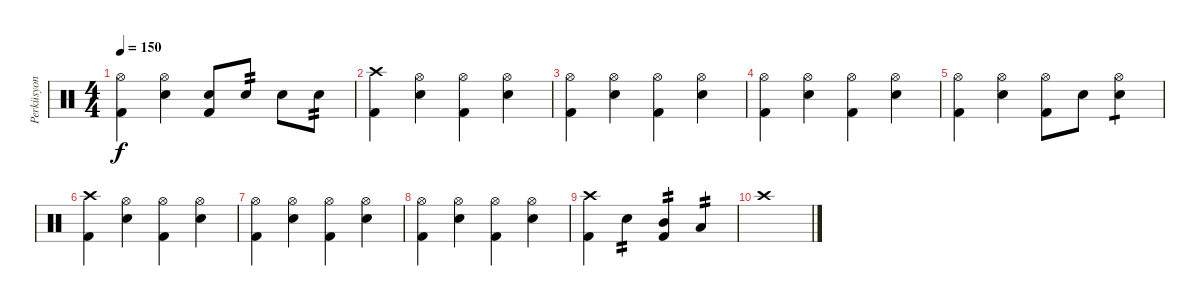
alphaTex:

\track ("Perküsyon" "Perküsyon") {instrument percussion}
\staff {score}
\articulation defaults
\ts (4 4)
\tempo 150
\clef neutral
\ks c
("Hi-Hat (open)" "Kick (hit) 2").4{dy f} ("Hi-Hat (open)" "Snare (hit) 2").4 ("Snare (hit) 2" "Kick (hit) 2").8 "Snare (hit) 2".8{tp 2} "Snare (hit) 2".8 "Snare (hit) 2".8{tp 2} |
("Crash high (hit)" "Kick (hit) 2").4 ("Hi-Hat (open)" "Snare (hit) 2").4 ("Hi-Hat (open)" "Kick (hit) 2").4 ("Hi-Hat (open)" "Snare (hit) 2").4 |
("Hi-Hat (open)" "Kick (hit) 2").4 ("Hi-Hat (open)" "Snare (hit) 2").4 ("Hi-Hat (open)" "Kick (hit) 2").4 ("Hi-Hat (open)" "Snare (hit) 2").4 |
("Hi-Hat (open)" "Kick (hit) 2").4 ("Hi-Hat (open)" "Snare (hit) 2").4 ("Hi-Hat (open)" "Kick (hit) 2").4 ("Hi-Hat (open)" "Snare (hit) 2").4 |
("Hi-Hat (open)" "Kick (hit) 2").4 ("Hi-Hat (open)" "Snare (hit) 2").4 ("Hi-Hat (open)" "Kick (hit) 2").8 "Snare (hit) 2".8 ("Hi-Hat (open)" "Snare (hit) 2").4{tp 1} |
("Crash high (hit)" "Kick (hit) 2").4 ("Hi-Hat (open)" "Snare (hit) 2").4 ("Hi-Hat (open)" "Kick (hit) 2").4 ("Hi-Hat (open)" "Snare (hit) 2").4 |
("Hi-Hat (open)" "Kick (hit) 2").4 ("Hi-Hat (open)" "Snare (hit) 2").4 ("Hi-Hat (open)" "Kick (hit) 2").4 ("Hi-Hat (open)" "Snare (hit) 2").4 |
("Hi-Hat (open)" "Kick (hit) 2").4 ("Hi-Hat (open)" "Snare (hit) 2").4 ("Hi-Hat (open)" "Kick (hit) 2").4 ("Hi-Hat (open)" "Snare (hit) 2").4 |
("Crash high (hit)" "Kick (hit) 2").4 "Snare (hit) 2".4{tp 2} ("Mid Tom (hit)" "Kick (hit) 2").4{tp 2} "Low Tom (hit)".4{tp 2} |
"Crash high (hit)".1
